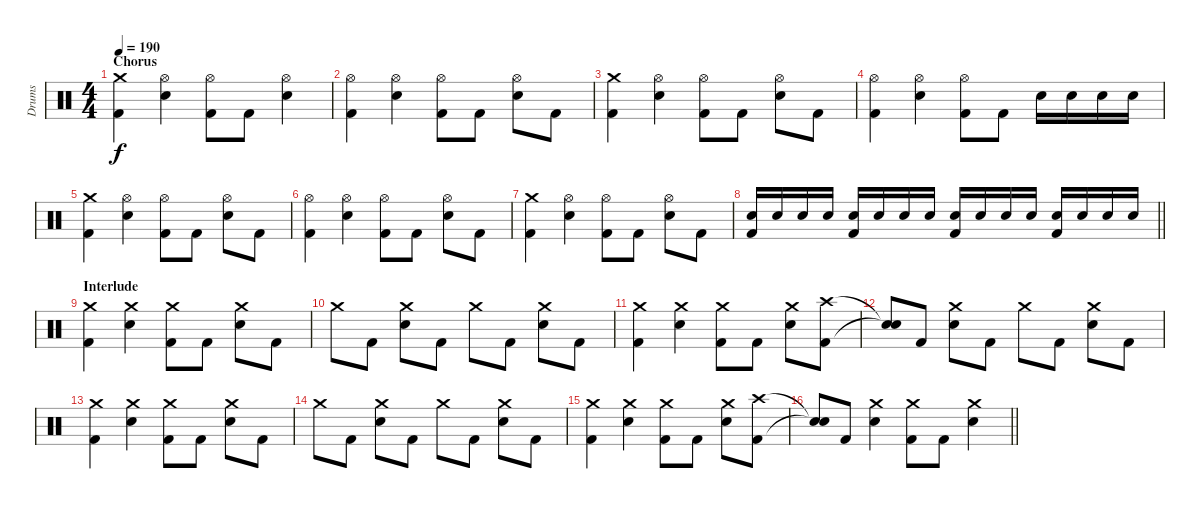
\track ("Drums" "Drums") {instrument percussion}
\staff {score}
\articulation defaults
\ts (4 4)
\section ("" "Chorus")
\tempo 190
\clef neutral
\ks c
("Crash medium (hit)" "Kick (hit) 2").4{dy f} ("Hi-Hat (open)" "Electric Snare (hit)").4 ("Hi-Hat (open)" "Kick (hit) 2").8 "Kick (hit) 2".8 ("Hi-Hat (open)" "Electric Snare (hit)").4 |
("Hi-Hat (open)" "Kick (hit) 2").4 ("Hi-Hat (open)" "Electric Snare (hit)").4 ("Hi-Hat (open)" "Kick (hit) 2").8 "Kick (hit) 2".8 ("Hi-Hat (open)" "Electric Snare (hit)").8 "Kick (hit) 2".8 |
("Crash medium (hit)" "Kick (hit) 2").4 ("Hi-Hat (open)" "Electric Snare (hit)").4 ("Hi-Hat (open)" "Kick (hit) 2").8 "Kick (hit) 2".8 ("Hi-Hat (open)" "Electric Snare (hit)").8 "Kick (hit) 2".8 |
("Hi-Hat (open)" "Kick (hit) 2").4 ("Hi-Hat (open)" "Electric Snare (hit)").4 ("Hi-Hat (open)" "Kick (hit) 2").8 "Kick (hit) 2".8 "Electric Snare (hit)".16 "Electric Snare (hit)".16 "Electric Snare (hit)".16 "Electric Snare (hit)".16 |
("Crash medium (hit)" "Kick (hit) 2").4 ("Hi-Hat (open)" "Electric Snare (hit)").4 ("Hi-Hat (open)" "Kick (hit) 2").8 "Kick (hit) 2".8 ("Hi-Hat (open)" "Electric Snare (hit)").8 "Kick (hit) 2".8 |
("Hi-Hat (open)" "Kick (hit) 2").4 ("Hi-Hat (open)" "Electric Snare (hit)").4 ("Hi-Hat (open)" "Kick (hit) 2").8 "Kick (hit) 2".8 ("Hi-Hat (open)" "Electric Snare (hit)").8 "Kick (hit) 2".8 |
("Crash medium (hit)" "Kick (hit) 2").4 ("Hi-Hat (open)" "Electric Snare (hit)").4 ("Hi-Hat (open)" "Kick (hit) 2").8 "Kick (hit) 2".8 ("Hi-Hat (open)" "Electric Snare (hit)").8 "Kick (hit) 2".8 |
\barLineRight lightlight
("Electric Snare (hit)" "Kick (hit) 2").16 "Electric Snare (hit)".16 "Electric Snare (hit)".16 "Electric Snare (hit)".16 ("Electric Snare (hit)" "Kick (hit) 2").16 "Electric Snare (hit)".16 "Electric Snare (hit)".16 "Electric Snare (hit)".16 ("Electric Snare (hit)" "Kick (hit) 2").16 "Electric Snare (hit)".16 "Electric Snare (hit)".16 "Electric Snare (hit)".16 ("Electric Snare (hit)" "Kick (hit) 2").16 "Electric Snare (hit)".16 "Electric Snare (hit)".16 "Electric Snare (hit)".16 |
\section ("" "Interlude")
("Crash medium (hit)" "Kick (hit) 2").4 ("Crash medium (hit)" "Electric Snare (hit)").4 ("Crash medium (hit)" "Kick (hit) 2").8 "Kick (hit) 2".8 ("Crash medium (hit)" "Electric Snare (hit)").8 "Kick (hit) 2".8 |
"Crash medium (hit)".8 "Kick (hit) 2".8 ("Crash medium (hit)" "Electric Snare (hit)").8 "Kick (hit) 2".8 "Crash medium (hit)".8 "Kick (hit) 2".8 ("Crash medium (hit)" "Electric Snare (hit)").8 "Kick (hit) 2".8 |
("Crash medium (hit)" "Kick (hit) 2").4 ("Crash medium (hit)" "Electric Snare (hit)").4 ("Crash medium (hit)" "Kick (hit) 2").8 "Kick (hit) 2".8 ("Crash medium (hit)" "Electric Snare (hit)").8 ("Crash high (hit)" "Kick (hit) 2").8 |
("Snare (hit)"{t} "Snare (hit)"{t}).8 "Kick (hit) 2".8 ("Crash medium (hit)" "Electric Snare (hit)").8 "Kick (hit) 2".8 "Crash medium (hit)".8 "Kick (hit) 2".8 ("Crash medium (hit)" "Electric Snare (hit)").8 "Kick (hit) 2".8 |
("Crash medium (hit)" "Kick (hit) 2").4 ("Crash medium (hit)" "Electric Snare (hit)").4 ("Crash medium (hit)" "Kick (hit) 2").8 "Kick (hit) 2".8 ("Crash medium (hit)" "Electric Snare (hit)").8 "Kick (hit) 2".8 |
"Crash medium (hit)".8 "Kick (hit) 2".8 ("Crash medium (hit)" "Electric Snare (hit)").8 "Kick (hit) 2".8 "Crash medium (hit)".8 "Kick (hit) 2".8 ("Crash medium (hit)" "Electric Snare (hit)").8 "Kick (hit) 2".8 |
("Crash medium (hit)" "Kick (hit) 2").4 ("Crash medium (hit)" "Electric Snare (hit)").4 ("Crash medium (hit)" "Kick (hit) 2").8 "Kick (hit) 2".8 ("Crash medium (hit)" "Electric Snare (hit)").8 ("Crash high (hit)" "Kick (hit) 2").8 |
\barLineRight lightlight
("Snare (hit)"{t} "Snare (hit)"{t}).8 "Kick (hit) 2".8 ("Crash medium (hit)" "Electric Snare (hit)").4 ("Crash medium (hit)" "Kick (hit) 2").8 "Kick (hit) 2".8 ("Crash medium (hit)" "Electric Snare (hit)").4
